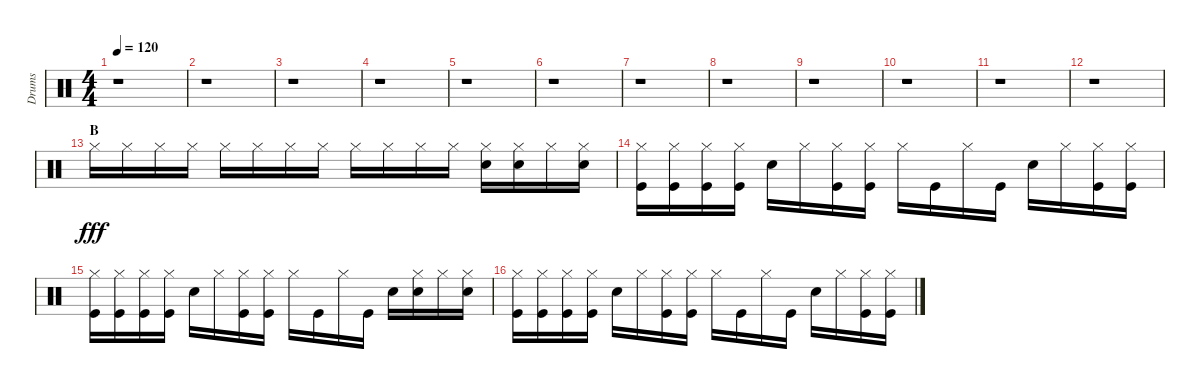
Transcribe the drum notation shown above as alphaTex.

\track ("Drums" "Drums") {instrument percussion}
\staff {score}
\articulation defaults
\ts (4 4)
\tempo 120
\clef neutral
\ks c
r.1{dy fff} |
r.1 |
r.1 |
r.1 |
r.1 |
r.1 |
r.1 |
r.1 |
r.1 |
r.1 |
r.1 |
r.1 |
\section ("" "B")
"Hi-Hat (closed)".16 "Hi-Hat (closed)".16 "Hi-Hat (closed)".16 "Hi-Hat (closed)".16 "Hi-Hat (closed)".16 "Hi-Hat (closed)".16 "Hi-Hat (closed)".16 "Hi-Hat (closed)".16 "Hi-Hat (closed)".16 "Hi-Hat (closed)".16 "Hi-Hat (closed)".16 "Hi-Hat (closed)".16 ("Snare (hit) 2" "Hi-Hat (closed)").16 ("Snare (hit) 2" "Hi-Hat (closed)").16 "Hi-Hat (closed)".16 ("Snare (hit) 2" "Hi-Hat (closed)").16 |
("Kick (hit)" "Hi-Hat (closed)").16 ("Kick (hit)" "Hi-Hat (closed)").16 ("Kick (hit)" "Hi-Hat (closed)").16 ("Kick (hit)" "Hi-Hat (closed)").16 "Snare (hit) 2".16 "Hi-Hat (closed)".16 ("Kick (hit)" "Hi-Hat (closed)").16 ("Kick (hit)" "Hi-Hat (closed)").16 "Hi-Hat (closed)".16 "Kick (hit)".16 "Hi-Hat (closed)".16 "Kick (hit)".16 "Snare (hit) 2".16 "Hi-Hat (closed)".16 ("Kick (hit)" "Hi-Hat (closed)").16 ("Kick (hit)" "Hi-Hat (closed)").16 |
("Kick (hit)" "Hi-Hat (closed)").16 ("Kick (hit)" "Hi-Hat (closed)").16 ("Kick (hit)" "Hi-Hat (closed)").16 ("Kick (hit)" "Hi-Hat (closed)").16 "Snare (hit) 2".16 "Hi-Hat (closed)".16 ("Kick (hit)" "Hi-Hat (closed)").16 ("Kick (hit)" "Hi-Hat (closed)").16 "Hi-Hat (closed)".16 "Kick (hit)".16 "Hi-Hat (closed)".16 "Kick (hit)".16 "Snare (hit) 2".16 ("Snare (hit) 2" "Hi-Hat (closed)").16 "Hi-Hat (closed)".16 ("Snare (hit) 2" "Hi-Hat (closed)").16 |
("Kick (hit)" "Hi-Hat (closed)").16 ("Kick (hit)" "Hi-Hat (closed)").16 ("Kick (hit)" "Hi-Hat (closed)").16 ("Kick (hit)" "Hi-Hat (closed)").16 "Snare (hit) 2".16 "Hi-Hat (closed)".16 ("Kick (hit)" "Hi-Hat (closed)").16 ("Kick (hit)" "Hi-Hat (closed)").16 "Hi-Hat (closed)".16 "Kick (hit)".16 "Hi-Hat (closed)".16 "Kick (hit)".16 "Snare (hit) 2".16 "Hi-Hat (closed)".16 ("Kick (hit)" "Hi-Hat (closed)").16 ("Kick (hit)" "Hi-Hat (closed)").16
